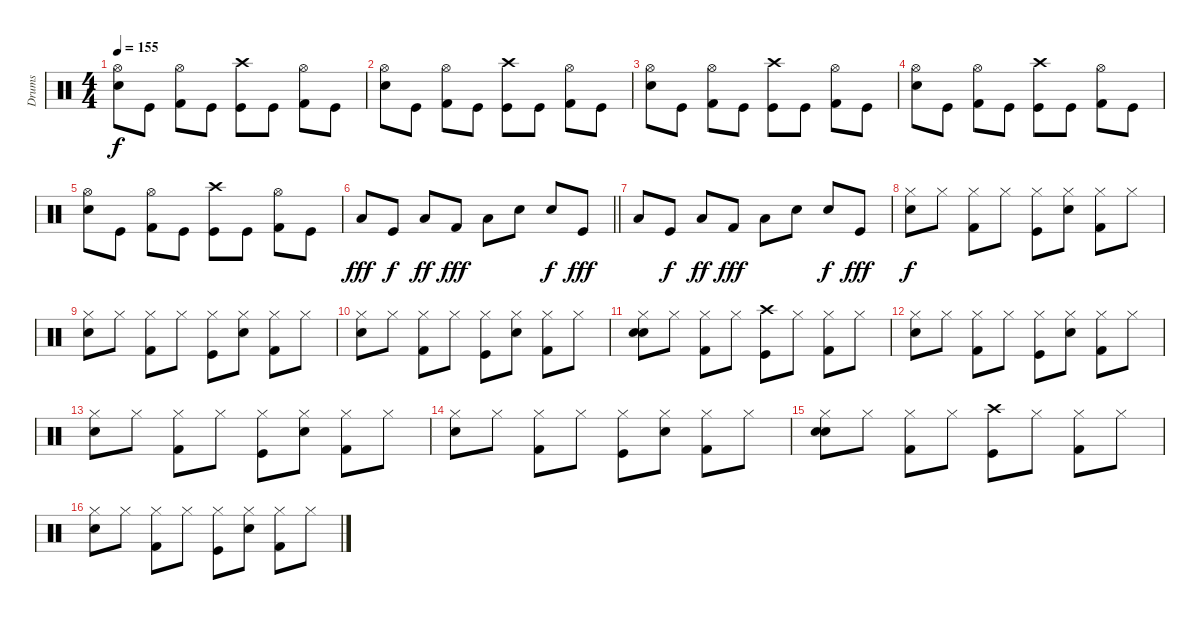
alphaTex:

\track ("Drums" "Drums") {instrument percussion}
\staff {score}
\articulation defaults
\ts (4 4)
\tempo 155
\clef neutral
\ks c
("Electric Snare (hit)" "Hi-Hat (open)").8{dy f} "Kick (hit)".8 ("Kick (hit) 2" "Hi-Hat (open)").8 "Kick (hit)".8 ("Kick (hit)" "Crash high (hit)").8 "Kick (hit)".8 ("Kick (hit) 2" "Hi-Hat (open)").8 "Kick (hit)".8 |
("Electric Snare (hit)" "Hi-Hat (open)").8 "Kick (hit)".8 ("Kick (hit) 2" "Hi-Hat (open)").8 "Kick (hit)".8 ("Kick (hit)" "Crash high (hit)").8 "Kick (hit)".8 ("Kick (hit) 2" "Hi-Hat (open)").8 "Kick (hit)".8 |
("Electric Snare (hit)" "Hi-Hat (open)").8 "Kick (hit)".8 ("Kick (hit) 2" "Hi-Hat (open)").8 "Kick (hit)".8 ("Kick (hit)" "Crash high (hit)").8 "Kick (hit)".8 ("Kick (hit) 2" "Hi-Hat (open)").8 "Kick (hit)".8 |
("Electric Snare (hit)" "Hi-Hat (open)").8 "Kick (hit)".8 ("Kick (hit) 2" "Hi-Hat (open)").8 "Kick (hit)".8 ("Kick (hit)" "Crash high (hit)").8 "Kick (hit)".8 ("Kick (hit) 2" "Hi-Hat (open)").8 "Kick (hit)".8 |
("Electric Snare (hit)" "Hi-Hat (open)").8 "Kick (hit)".8 ("Kick (hit) 2" "Hi-Hat (open)").8 "Kick (hit)".8 ("Kick (hit)" "Crash high (hit)").8 "Kick (hit)".8 ("Kick (hit) 2" "Hi-Hat (open)").8 "Kick (hit)".8 |
\barLineRight lightlight "Low Floor Tom (hit)".8{dy fff} "Kick (hit)".8{dy f} "Low Floor Tom (hit)".8{dy ff} "Kick (hit) 2".8{dy fff} "Low Floor Tom (hit)".8 "Snare (hit) 2".8 "Snare (hit) 2".8{dy f} "Kick (hit)".8{dy fff}
|
"Low Floor Tom (hit)".8 "Kick (hit)".8{dy f} "Low Floor Tom (hit)".8{dy ff} "Kick (hit) 2".8{dy fff} "Low Floor Tom (hit)".8 "Snare (hit) 2".8 "Snare (hit) 2".8{dy f} "Kick (hit)".8{dy fff} |
("Electric Snare (hit)" "Hi-Hat (closed)").8{dy f} "Hi-Hat (closed)".8 ("Kick (hit) 2" "Hi-Hat (closed)").8 "Hi-Hat (closed)".8 ("Kick (hit)" "Hi-Hat (closed)").8 ("Snare (hit) 2" "Hi-Hat (closed)").8 ("Kick (hit) 2" "Hi-Hat (closed)").8 "Hi-Hat (closed)".8 |
("Electric Snare (hit)" "Hi-Hat (closed)").8 "Hi-Hat (closed)".8 ("Kick (hit) 2" "Hi-Hat (closed)").8 "Hi-Hat (closed)".8 ("Kick (hit)" "Hi-Hat (closed)").8 ("Snare (hit) 2" "Hi-Hat (closed)").8 ("Kick (hit) 2" "Hi-Hat (closed)").8 "Hi-Hat (closed)".8 |
("Electric Snare (hit)" "Hi-Hat (closed)").8 "Hi-Hat (closed)".8 ("Kick (hit) 2" "Hi-Hat (closed)").8 "Hi-Hat (closed)".8 ("Kick (hit)" "Hi-Hat (closed)").8 ("Snare (hit) 2" "Hi-Hat (closed)").8 ("Kick (hit) 2" "Hi-Hat (closed)").8 "Hi-Hat (closed)".8 |
("Electric Snare (hit)" "Snare (hit) 2" "Hi-Hat (closed)").8 "Hi-Hat (closed)".8 ("Kick (hit) 2" "Hi-Hat (closed)").8 "Hi-Hat (closed)".8 ("Kick (hit)" "Crash high (hit)").8 "Hi-Hat (closed)".8 ("Kick (hit) 2" "Hi-Hat (closed)").8 "Hi-Hat (closed)".8 |
("Electric Snare (hit)" "Hi-Hat (closed)").8 "Hi-Hat (closed)".8 ("Kick (hit) 2" "Hi-Hat (closed)").8 "Hi-Hat (closed)".8 ("Kick (hit)" "Hi-Hat (closed)").8 ("Snare (hit) 2" "Hi-Hat (closed)").8 ("Kick (hit) 2" "Hi-Hat (closed)").8 "Hi-Hat (closed)".8 |
("Electric Snare (hit)" "Hi-Hat (closed)").8 "Hi-Hat (closed)".8 ("Kick (hit) 2" "Hi-Hat (closed)").8 "Hi-Hat (closed)".8 ("Kick (hit)" "Hi-Hat (closed)").8 ("Snare (hit) 2" "Hi-Hat (closed)").8 ("Kick (hit) 2" "Hi-Hat (closed)").8 "Hi-Hat (closed)".8 |
("Electric Snare (hit)" "Hi-Hat (closed)").8 "Hi-Hat (closed)".8 ("Kick (hit) 2" "Hi-Hat (closed)").8 "Hi-Hat (closed)".8 ("Kick (hit)" "Hi-Hat (closed)").8 ("Snare (hit) 2" "Hi-Hat (closed)").8 ("Kick (hit) 2" "Hi-Hat (closed)").8 "Hi-Hat (closed)".8 |
("Electric Snare (hit)" "Snare (hit) 2" "Hi-Hat (closed)").8 "Hi-Hat (closed)".8 ("Kick (hit) 2" "Hi-Hat (closed)").8 "Hi-Hat (closed)".8 ("Kick (hit)" "Crash high (hit)").8 "Hi-Hat (closed)".8 ("Kick (hit) 2" "Hi-Hat (closed)").8 "Hi-Hat (closed)".8 |
("Electric Snare (hit)" "Hi-Hat (closed)").8 "Hi-Hat (closed)".8 ("Kick (hit) 2" "Hi-Hat (closed)").8 "Hi-Hat (closed)".8 ("Kick (hit)" "Hi-Hat (closed)").8 ("Snare (hit) 2" "Hi-Hat (closed)").8 ("Kick (hit) 2" "Hi-Hat (closed)").8 "Hi-Hat (closed)".8
